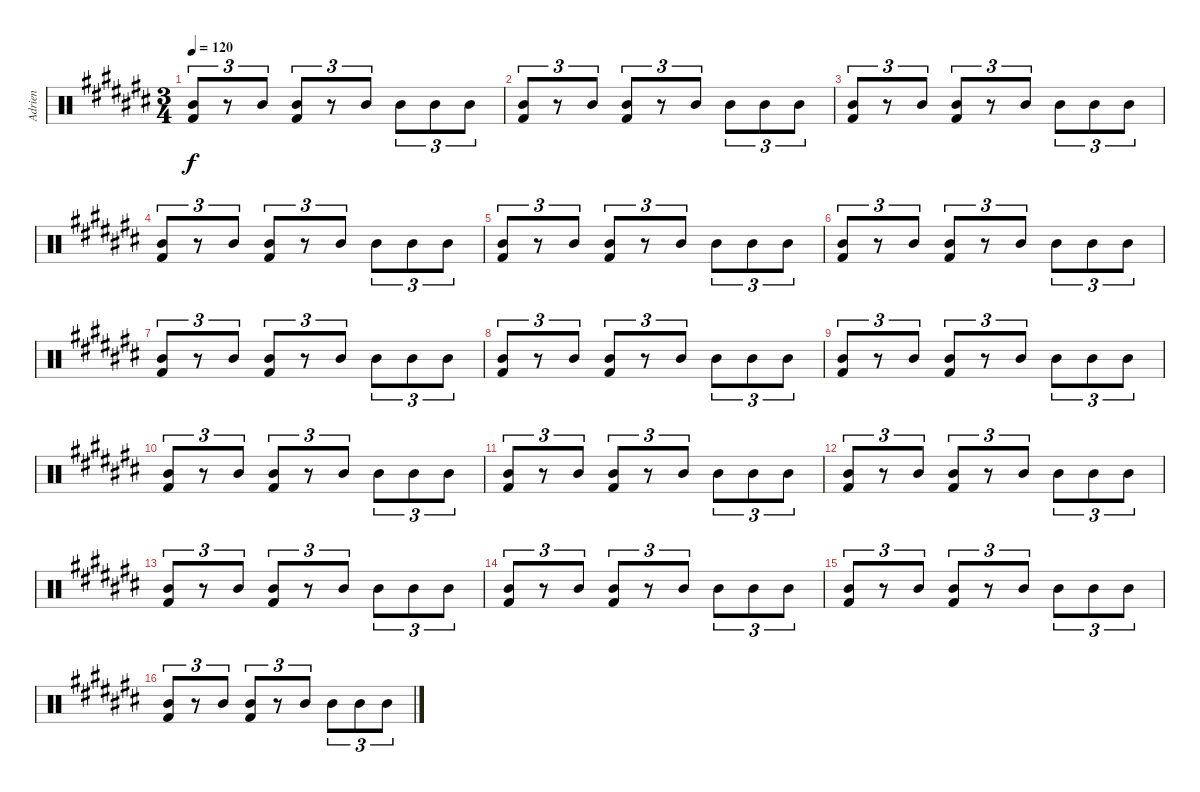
\track ("Adrien" "Adrien") {instrument percussion}
\staff {score}
\articulation defaults
\ts (3 4)
\tempo 120
\clef neutral
\ks c#
("Mid Tom (hit)" "Kick (hit) 2").8{tu (3 2) dy f} r.8{tu (3 2)} "Mid Tom (hit)".8{tu (3 2)} ("Mid Tom (hit)" "Kick (hit) 2").8{tu (3 2)} r.8{tu (3 2)} "Mid Tom (hit)".8{tu (3 2)} "Mid Tom (hit)".8{tu (3 2)} "Mid Tom (hit)".8{tu (3 2)} "Mid Tom (hit)".8{tu (3 2)} |
("Mid Tom (hit)" "Kick (hit) 2").8{tu (3 2)} r.8{tu (3 2)} "Mid Tom (hit)".8{tu (3 2)} ("Mid Tom (hit)" "Kick (hit) 2").8{tu (3 2)} r.8{tu (3 2)} "Mid Tom (hit)".8{tu (3 2)} "Mid Tom (hit)".8{tu (3 2)} "Mid Tom (hit)".8{tu (3 2)} "Mid Tom (hit)".8{tu (3 2)} |
("Mid Tom (hit)" "Kick (hit) 2").8{tu (3 2)} r.8{tu (3 2)} "Mid Tom (hit)".8{tu (3 2)} ("Mid Tom (hit)" "Kick (hit) 2").8{tu (3 2)} r.8{tu (3 2)} "Mid Tom (hit)".8{tu (3 2)} "Mid Tom (hit)".8{tu (3 2)} "Mid Tom (hit)".8{tu (3 2)} "Mid Tom (hit)".8{tu (3 2)} |
("Mid Tom (hit)" "Kick (hit) 2").8{tu (3 2)} r.8{tu (3 2)} "Mid Tom (hit)".8{tu (3 2)} ("Mid Tom (hit)" "Kick (hit) 2").8{tu (3 2)} r.8{tu (3 2)} "Mid Tom (hit)".8{tu (3 2)} "Mid Tom (hit)".8{tu (3 2)} "Mid Tom (hit)".8{tu (3 2)} "Mid Tom (hit)".8{tu (3 2)} |
("Mid Tom (hit)" "Kick (hit) 2").8{tu (3 2)} r.8{tu (3 2)} "Mid Tom (hit)".8{tu (3 2)} ("Mid Tom (hit)" "Kick (hit) 2").8{tu (3 2)} r.8{tu (3 2)} "Mid Tom (hit)".8{tu (3 2)} "Mid Tom (hit)".8{tu (3 2)} "Mid Tom (hit)".8{tu (3 2)} "Mid Tom (hit)".8{tu (3 2)} |
("Mid Tom (hit)" "Kick (hit) 2").8{tu (3 2)} r.8{tu (3 2)} "Mid Tom (hit)".8{tu (3 2)} ("Mid Tom (hit)" "Kick (hit) 2").8{tu (3 2)} r.8{tu (3 2)} "Mid Tom (hit)".8{tu (3 2)} "Mid Tom (hit)".8{tu (3 2)} "Mid Tom (hit)".8{tu (3 2)} "Mid Tom (hit)".8{tu (3 2)} |
("Mid Tom (hit)" "Kick (hit) 2").8{tu (3 2)} r.8{tu (3 2)} "Mid Tom (hit)".8{tu (3 2)} ("Mid Tom (hit)" "Kick (hit) 2").8{tu (3 2)} r.8{tu (3 2)} "Mid Tom (hit)".8{tu (3 2)} "Mid Tom (hit)".8{tu (3 2)} "Mid Tom (hit)".8{tu (3 2)} "Mid Tom (hit)".8{tu (3 2)} |
("Mid Tom (hit)" "Kick (hit) 2").8{tu (3 2)} r.8{tu (3 2)} "Mid Tom (hit)".8{tu (3 2)} ("Mid Tom (hit)" "Kick (hit) 2").8{tu (3 2)} r.8{tu (3 2)} "Mid Tom (hit)".8{tu (3 2)} "Mid Tom (hit)".8{tu (3 2)} "Mid Tom (hit)".8{tu (3 2)} "Mid Tom (hit)".8{tu (3 2)} |
("Mid Tom (hit)" "Kick (hit) 2").8{tu (3 2)} r.8{tu (3 2)} "Mid Tom (hit)".8{tu (3 2)} ("Mid Tom (hit)" "Kick (hit) 2").8{tu (3 2)} r.8{tu (3 2)} "Mid Tom (hit)".8{tu (3 2)} "Mid Tom (hit)".8{tu (3 2)} "Mid Tom (hit)".8{tu (3 2)} "Mid Tom (hit)".8{tu (3 2)} |
("Mid Tom (hit)" "Kick (hit) 2").8{tu (3 2)} r.8{tu (3 2)} "Mid Tom (hit)".8{tu (3 2)} ("Mid Tom (hit)" "Kick (hit) 2").8{tu (3 2)} r.8{tu (3 2)} "Mid Tom (hit)".8{tu (3 2)} "Mid Tom (hit)".8{tu (3 2)} "Mid Tom (hit)".8{tu (3 2)} "Mid Tom (hit)".8{tu (3 2)} |
("Mid Tom (hit)" "Kick (hit) 2").8{tu (3 2)} r.8{tu (3 2)} "Mid Tom (hit)".8{tu (3 2)} ("Mid Tom (hit)" "Kick (hit) 2").8{tu (3 2)} r.8{tu (3 2)} "Mid Tom (hit)".8{tu (3 2)} "Mid Tom (hit)".8{tu (3 2)} "Mid Tom (hit)".8{tu (3 2)} "Mid Tom (hit)".8{tu (3 2)} |
("Mid Tom (hit)" "Kick (hit) 2").8{tu (3 2)} r.8{tu (3 2)} "Mid Tom (hit)".8{tu (3 2)} ("Mid Tom (hit)" "Kick (hit) 2").8{tu (3 2)} r.8{tu (3 2)} "Mid Tom (hit)".8{tu (3 2)} "Mid Tom (hit)".8{tu (3 2)} "Mid Tom (hit)".8{tu (3 2)} "Mid Tom (hit)".8{tu (3 2)} |
("Mid Tom (hit)" "Kick (hit) 2").8{tu (3 2)} r.8{tu (3 2)} "Mid Tom (hit)".8{tu (3 2)} ("Mid Tom (hit)" "Kick (hit) 2").8{tu (3 2)} r.8{tu (3 2)} "Mid Tom (hit)".8{tu (3 2)} "Mid Tom (hit)".8{tu (3 2)} "Mid Tom (hit)".8{tu (3 2)} "Mid Tom (hit)".8{tu (3 2)} |
("Mid Tom (hit)" "Kick (hit) 2").8{tu (3 2)} r.8{tu (3 2)} "Mid Tom (hit)".8{tu (3 2)} ("Mid Tom (hit)" "Kick (hit) 2").8{tu (3 2)} r.8{tu (3 2)} "Mid Tom (hit)".8{tu (3 2)} "Mid Tom (hit)".8{tu (3 2)} "Mid Tom (hit)".8{tu (3 2)} "Mid Tom (hit)".8{tu (3 2)} |
("Mid Tom (hit)" "Kick (hit) 2").8{tu (3 2)} r.8{tu (3 2)} "Mid Tom (hit)".8{tu (3 2)} ("Mid Tom (hit)" "Kick (hit) 2").8{tu (3 2)} r.8{tu (3 2)} "Mid Tom (hit)".8{tu (3 2)} "Mid Tom (hit)".8{tu (3 2)} "Mid Tom (hit)".8{tu (3 2)} "Mid Tom (hit)".8{tu (3 2)} |
("Mid Tom (hit)" "Kick (hit) 2").8{tu (3 2)} r.8{tu (3 2)} "Mid Tom (hit)".8{tu (3 2)} ("Mid Tom (hit)" "Kick (hit) 2").8{tu (3 2)} r.8{tu (3 2)} "Mid Tom (hit)".8{tu (3 2)} "Mid Tom (hit)".8{tu (3 2)} "Mid Tom (hit)".8{tu (3 2)} "Mid Tom (hit)".8{tu (3 2)}
